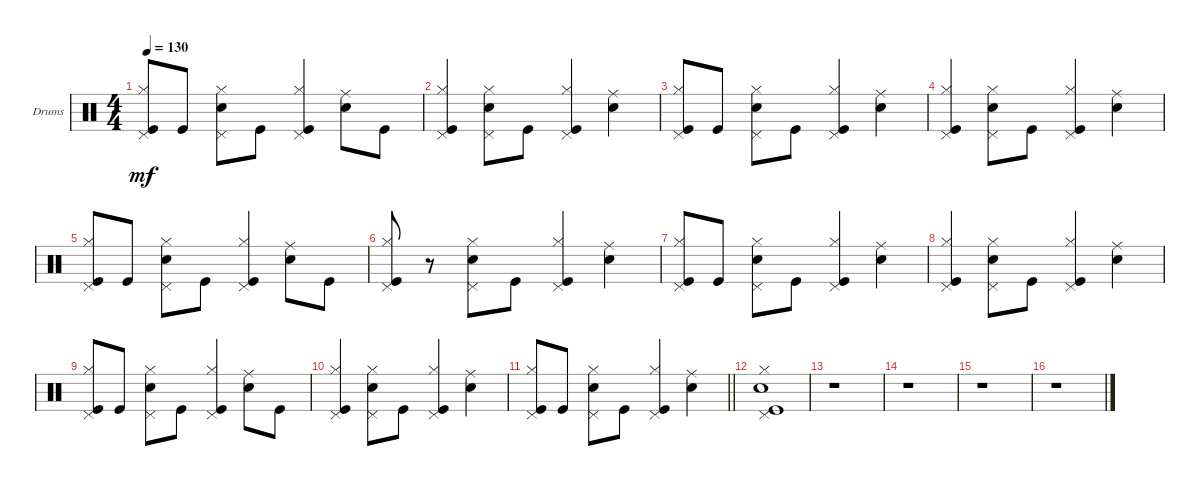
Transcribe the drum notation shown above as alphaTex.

\defaultSystemsLayout 4
\bracketExtendMode groupsimilarinstruments
\firstSystemTrackNameOrientation horizontal
\otherSystemsTrackNameOrientation horizontal
\chordDiagramsInScore
\track ("Drumkit" "Drums") {instrument percussion}
\staff {score}
\articulation defaults
\ts (4 4)
\tempo 130
\clef neutral
\ks c
("Kick (hit)" "Hi-Hat (closed)" "Pedal Hi-Hat (hit)").8{dy mf} "Kick (hit)".8 ("Hi-Hat (closed)" "Pedal Hi-Hat (hit)" "Snare (hit) 2").8 "Kick (hit)".8 ("Kick (hit)" "Pedal Hi-Hat (hit)" "Hi-Hat (closed)").4 ("Snare (hit) 2" "Ride (middle)").8 "Kick (hit)".8 |
("Kick (hit)" "Hi-Hat (closed)" "Pedal Hi-Hat (hit)").4 ("Hi-Hat (closed)" "Pedal Hi-Hat (hit)" "Snare (hit) 2").8 "Kick (hit)".8 ("Kick (hit)" "Pedal Hi-Hat (hit)" "Hi-Hat (closed)").4 ("Snare (hit) 2" "Ride (middle)").4 |
("Kick (hit)" "Hi-Hat (closed)" "Pedal Hi-Hat (hit)").8 "Kick (hit)".8 ("Hi-Hat (closed)" "Pedal Hi-Hat (hit)" "Snare (hit) 2").8 "Kick (hit)".8 ("Kick (hit)" "Pedal Hi-Hat (hit)" "Hi-Hat (closed)").4 ("Snare (hit) 2" "Ride (middle)").4 |
("Kick (hit)" "Hi-Hat (closed)" "Pedal Hi-Hat (hit)").4 ("Hi-Hat (closed)" "Pedal Hi-Hat (hit)" "Snare (hit) 2").8 "Kick (hit)".8 ("Kick (hit)" "Pedal Hi-Hat (hit)" "Hi-Hat (closed)").4 ("Snare (hit) 2" "Ride (middle)").4 |
("Kick (hit)" "Hi-Hat (closed)" "Pedal Hi-Hat (hit)").8 "Kick (hit)".8 ("Hi-Hat (closed)" "Pedal Hi-Hat (hit)" "Snare (hit) 2").8 "Kick (hit)".8 ("Kick (hit)" "Pedal Hi-Hat (hit)" "Hi-Hat (closed)").4 ("Snare (hit) 2" "Ride (middle)").8 "Kick (hit)".8 |
("Kick (hit)" "Hi-Hat (closed)" "Pedal Hi-Hat (hit)").8 r.8 ("Hi-Hat (closed)" "Pedal Hi-Hat (hit)" "Snare (hit) 2").8 "Kick (hit)".8 ("Kick (hit)" "Pedal Hi-Hat (hit)" "Hi-Hat (closed)").4 ("Snare (hit) 2" "Ride (middle)").4 |
("Kick (hit)" "Hi-Hat (closed)" "Pedal Hi-Hat (hit)").8 "Kick (hit)".8 ("Hi-Hat (closed)" "Pedal Hi-Hat (hit)" "Snare (hit) 2").8 "Kick (hit)".8 ("Kick (hit)" "Pedal Hi-Hat (hit)" "Hi-Hat (closed)").4 ("Snare (hit) 2" "Ride (middle)").4 |
("Kick (hit)" "Hi-Hat (closed)" "Pedal Hi-Hat (hit)").4 ("Hi-Hat (closed)" "Pedal Hi-Hat (hit)" "Snare (hit) 2").8 "Kick (hit)".8 ("Kick (hit)" "Pedal Hi-Hat (hit)" "Hi-Hat (closed)").4 ("Snare (hit) 2" "Ride (middle)").4 |
("Kick (hit)" "Hi-Hat (closed)" "Pedal Hi-Hat (hit)").8 "Kick (hit)".8 ("Hi-Hat (closed)" "Pedal Hi-Hat (hit)" "Snare (hit) 2").8 "Kick (hit)".8 ("Kick (hit)" "Pedal Hi-Hat (hit)" "Hi-Hat (closed)").4 ("Snare (hit) 2" "Ride (middle)").8 "Kick (hit)".8 |
("Kick (hit)" "Hi-Hat (closed)" "Pedal Hi-Hat (hit)").4 ("Hi-Hat (closed)" "Pedal Hi-Hat (hit)" "Snare (hit) 2").8 "Kick (hit)".8 ("Kick (hit)" "Pedal Hi-Hat (hit)" "Hi-Hat (closed)").4 ("Snare (hit) 2" "Ride (middle)").4 |
\barLineRight lightlight
("Kick (hit)" "Hi-Hat (closed)" "Pedal Hi-Hat (hit)").8 "Kick (hit)".8 ("Hi-Hat (closed)" "Pedal Hi-Hat (hit)" "Snare (hit) 2").8 "Kick (hit)".8 ("Kick (hit)" "Pedal Hi-Hat (hit)" "Hi-Hat (closed)").4 ("Snare (hit) 2" "Ride (middle)").4 |
("Pedal Hi-Hat (hit)" "Kick (hit)" "Snare (hit) 2" "Hi-Hat (closed)").1 |
r.1 |
r.1 |
r.1 |
r.1
